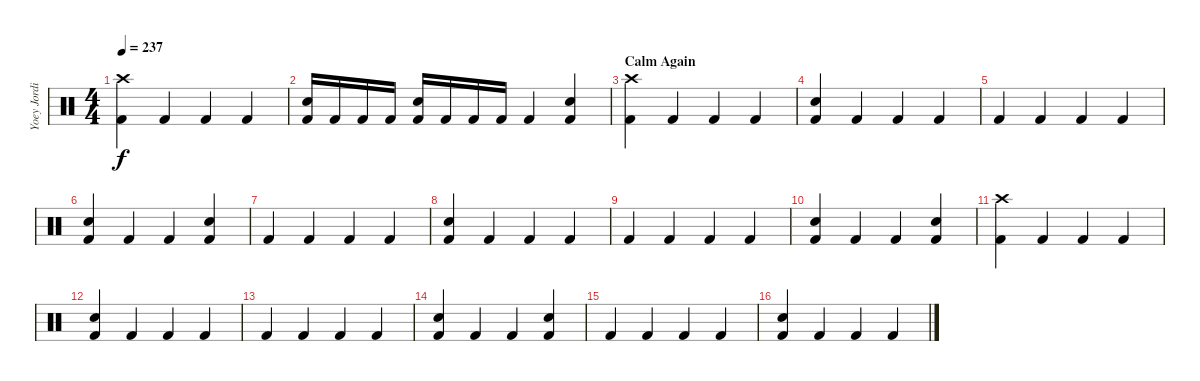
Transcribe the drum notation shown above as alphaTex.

\track ("Yoey Jordison" "Yoey Jordi") {instrument percussion}
\staff {score}
\articulation defaults
\ts (4 4)
\tempo 237
\clef neutral
\ks c
("Crash high (hit)" "Kick (hit) 2").4{dy f} "Kick (hit) 2".4 "Kick (hit) 2".4 "Kick (hit) 2".4 |
("Kick (hit) 2" "Snare (hit) 2").16 "Kick (hit) 2".16 "Kick (hit) 2".16 "Kick (hit) 2".16 ("Kick (hit) 2" "Snare (hit) 2").16 "Kick (hit) 2".16 "Kick (hit) 2".16 "Kick (hit) 2".16 "Kick (hit) 2".4 ("Kick (hit) 2" "Snare (hit) 2").4 |
\section ("" "Calm Again")
("Kick (hit) 2" "Crash high (hit)").4 "Kick (hit) 2".4 "Kick (hit) 2".4 "Kick (hit) 2".4 |
("Kick (hit) 2" "Snare (hit) 2").4 "Kick (hit) 2".4 "Kick (hit) 2".4 "Kick (hit) 2".4 |
"Kick (hit) 2".4 "Kick (hit) 2".4 "Kick (hit) 2".4 "Kick (hit) 2".4 |
("Kick (hit) 2" "Snare (hit) 2").4 "Kick (hit) 2".4 "Kick (hit) 2".4 ("Kick (hit) 2" "Snare (hit) 2").4 |
"Kick (hit) 2".4 "Kick (hit) 2".4 "Kick (hit) 2".4 "Kick (hit) 2".4 |
("Kick (hit) 2" "Snare (hit) 2").4 "Kick (hit) 2".4 "Kick (hit) 2".4 "Kick (hit) 2".4 |
"Kick (hit) 2".4 "Kick (hit) 2".4 "Kick (hit) 2".4 "Kick (hit) 2".4 |
("Kick (hit) 2" "Snare (hit) 2").4 "Kick (hit) 2".4 "Kick (hit) 2".4 ("Kick (hit) 2" "Snare (hit) 2").4 |
("Kick (hit) 2" "Crash high (hit)").4 "Kick (hit) 2".4 "Kick (hit) 2".4 "Kick (hit) 2".4 |
("Kick (hit) 2" "Snare (hit) 2").4 "Kick (hit) 2".4 "Kick (hit) 2".4 "Kick (hit) 2".4 |
"Kick (hit) 2".4 "Kick (hit) 2".4 "Kick (hit) 2".4 "Kick (hit) 2".4 |
("Kick (hit) 2" "Snare (hit) 2").4 "Kick (hit) 2".4 "Kick (hit) 2".4 ("Kick (hit) 2" "Snare (hit) 2").4 |
"Kick (hit) 2".4 "Kick (hit) 2".4 "Kick (hit) 2".4 "Kick (hit) 2".4 |
("Kick (hit) 2" "Snare (hit) 2").4 "Kick (hit) 2".4 "Kick (hit) 2".4 "Kick (hit) 2".4
